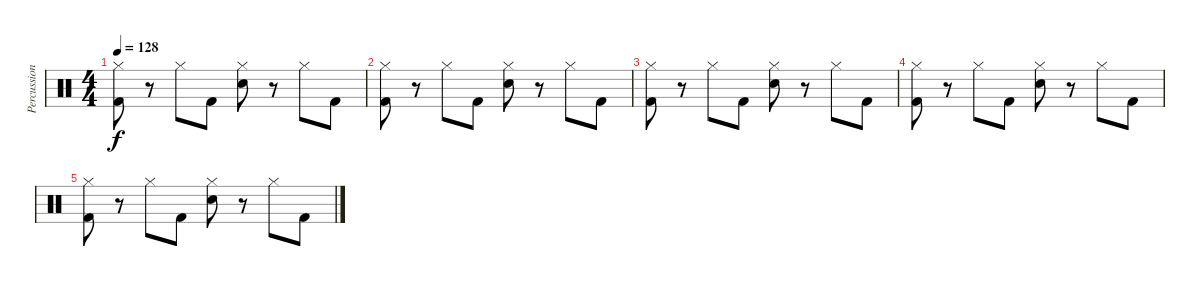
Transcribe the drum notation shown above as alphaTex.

\track ("Percussion" "Percussion") {instrument percussion}
\staff {score}
\articulation defaults
\ts (4 4)
\tempo 128
\clef neutral
\ks c
("Hi-Hat (closed)" "Kick (hit) 2").8{dy f} r.8 "Hi-Hat (closed)".8 "Kick (hit) 2".8 ("Hi-Hat (closed)" "Snare (hit) 2").8 r.8 "Hi-Hat (closed)".8 "Kick (hit) 2".8 |
("Hi-Hat (closed)" "Kick (hit) 2").8 r.8 "Hi-Hat (closed)".8 "Kick (hit) 2".8 ("Hi-Hat (closed)" "Snare (hit) 2").8 r.8 "Hi-Hat (closed)".8 "Kick (hit) 2".8 |
("Hi-Hat (closed)" "Kick (hit) 2").8 r.8 "Hi-Hat (closed)".8 "Kick (hit) 2".8 ("Hi-Hat (closed)" "Snare (hit) 2").8 r.8 "Hi-Hat (closed)".8 "Kick (hit) 2".8 |
("Hi-Hat (closed)" "Kick (hit) 2").8 r.8 "Hi-Hat (closed)".8 "Kick (hit) 2".8 ("Hi-Hat (closed)" "Snare (hit) 2").8 r.8 "Hi-Hat (closed)".8 "Kick (hit) 2".8 |
("Hi-Hat (closed)" "Kick (hit) 2").8 r.8 "Hi-Hat (closed)".8 "Kick (hit) 2".8 ("Hi-Hat (closed)" "Snare (hit) 2").8 r.8 "Hi-Hat (closed)".8 "Kick (hit) 2".8
